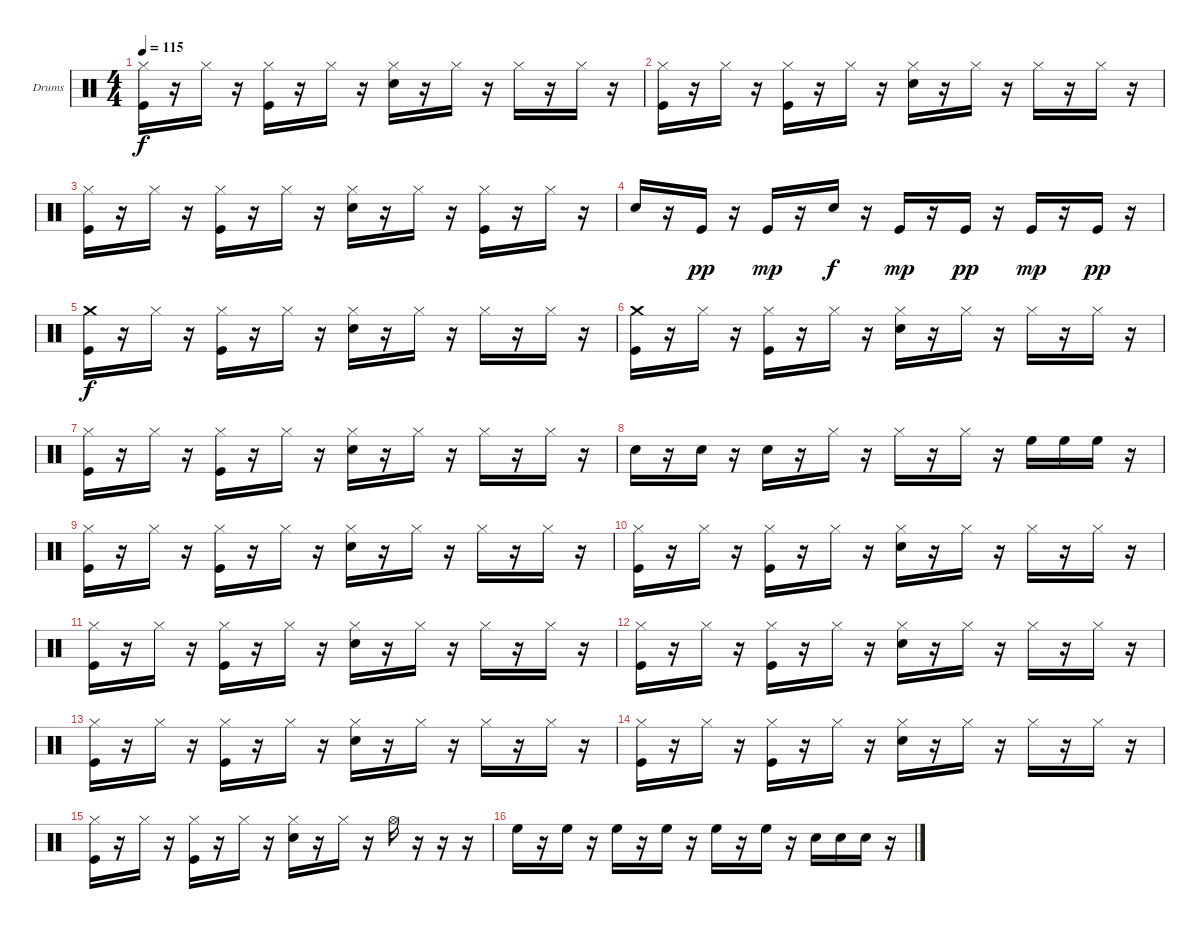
\bracketExtendMode groupsimilarinstruments
\firstSystemTrackNameOrientation horizontal
\otherSystemsTrackNameOrientation horizontal
\track ("Drumkit" "Drums") {instrument percussion}
\staff {score}
\articulation defaults
\ts (4 4)
\tempo 115
\clef neutral
\ks c
("Hi-Hat (closed)" "Kick (hit)").16{dy f} r.16 "Hi-Hat (closed)".16 r.16 ("Hi-Hat (closed)" "Kick (hit)").16 r.16 "Hi-Hat (closed)".16 r.16 ("Hi-Hat (closed)" "Snare (hit) 2").16 r.16 "Hi-Hat (closed)".16 r.16 "Hi-Hat (closed)".16 r.16 "Hi-Hat (closed)".16 r.16 |
("Hi-Hat (closed)" "Kick (hit)").16 r.16 "Hi-Hat (closed)".16 r.16 ("Hi-Hat (closed)" "Kick (hit)").16 r.16 "Hi-Hat (closed)".16 r.16 ("Hi-Hat (closed)" "Snare (hit) 2").16 r.16 "Hi-Hat (closed)".16 r.16 "Hi-Hat (closed)".16 r.16 "Hi-Hat (closed)".16 r.16 |
("Hi-Hat (closed)" "Kick (hit)").16 r.16 "Hi-Hat (closed)".16 r.16 ("Hi-Hat (closed)" "Kick (hit)").16 r.16 "Hi-Hat (closed)".16 r.16 ("Hi-Hat (closed)" "Snare (hit) 2").16 r.16 "Hi-Hat (closed)".16 r.16 ("Hi-Hat (closed)" "Kick (hit)").16 r.16 "Hi-Hat (closed)".16 r.16 |
"Snare (hit) 2".16 r.16 "Kick (hit)".16{dy pp} r.16 "Kick (hit)".16{dy mp} r.16 "Snare (hit) 2".16{dy f} r.16 "Kick (hit)".16{dy mp} r.16 "Kick (hit)".16{dy pp} r.16 "Kick (hit)".16{dy mp} r.16 "Kick (hit)".16{dy pp} r.16 |
("Crash medium (hit)" "Kick (hit)").16{dy f} r.16 "Hi-Hat (closed)".16 r.16 ("Hi-Hat (closed)" "Kick (hit)").16 r.16 "Hi-Hat (closed)".16 r.16 ("Hi-Hat (closed)" "Snare (hit) 2").16 r.16 "Hi-Hat (closed)".16 r.16 "Hi-Hat (closed)".16 r.16 "Hi-Hat (closed)".16 r.16 |
("Crash medium (hit)" "Kick (hit)").16 r.16 "Hi-Hat (closed)".16 r.16 ("Hi-Hat (closed)" "Kick (hit)").16 r.16 "Hi-Hat (closed)".16 r.16 ("Hi-Hat (closed)" "Snare (hit) 2").16 r.16 "Hi-Hat (closed)".16 r.16 "Hi-Hat (closed)".16 r.16 "Hi-Hat (closed)".16 r.16 |
("Hi-Hat (closed)" "Kick (hit)").16 r.16 "Hi-Hat (closed)".16 r.16 ("Hi-Hat (closed)" "Kick (hit)").16 r.16 "Hi-Hat (closed)".16 r.16 ("Hi-Hat (closed)" "Snare (hit) 2").16 r.16 "Hi-Hat (closed)".16 r.16 "Hi-Hat (closed)".16 r.16 "Hi-Hat (closed)".16 r.16 |
"Snare (hit) 2".16 r.16 "Snare (hit) 2".16 r.16 "Snare (hit) 2".16 r.16 "Hi-Hat (closed)".16 r.16 "Hi-Hat (closed)".16 r.16 "Hi-Hat (closed)".16 r.16 "High Floor Tom (hit)".16 "High Floor Tom (hit)".16 "High Floor Tom (hit)".16 r.16 |
("Hi-Hat (closed)" "Kick (hit)").16 r.16 "Hi-Hat (closed)".16 r.16 ("Hi-Hat (closed)" "Kick (hit)").16 r.16 "Hi-Hat (closed)".16 r.16 ("Hi-Hat (closed)" "Snare (hit) 2").16 r.16 "Hi-Hat (closed)".16 r.16 "Hi-Hat (closed)".16 r.16 "Hi-Hat (closed)".16 r.16 |
("Hi-Hat (closed)" "Kick (hit)").16 r.16 "Hi-Hat (closed)".16 r.16 ("Hi-Hat (closed)" "Kick (hit)").16 r.16 "Hi-Hat (closed)".16 r.16 ("Hi-Hat (closed)" "Snare (hit) 2").16 r.16 "Hi-Hat (closed)".16 r.16 "Hi-Hat (closed)".16 r.16 "Hi-Hat (closed)".16 r.16 |
("Hi-Hat (closed)" "Kick (hit)").16 r.16 "Hi-Hat (closed)".16 r.16 ("Hi-Hat (closed)" "Kick (hit)").16 r.16 "Hi-Hat (closed)".16 r.16 ("Hi-Hat (closed)" "Snare (hit) 2").16 r.16 "Hi-Hat (closed)".16 r.16 "Hi-Hat (closed)".16 r.16 "Hi-Hat (closed)".16 r.16 |
("Hi-Hat (closed)" "Kick (hit)").16 r.16 "Hi-Hat (closed)".16 r.16 ("Hi-Hat (closed)" "Kick (hit)").16 r.16 "Hi-Hat (closed)".16 r.16 ("Hi-Hat (closed)" "Snare (hit) 2").16 r.16 "Hi-Hat (closed)".16 r.16 "Hi-Hat (closed)".16 r.16 "Hi-Hat (closed)".16 r.16 |
("Hi-Hat (closed)" "Kick (hit)").16 r.16 "Hi-Hat (closed)".16 r.16 ("Hi-Hat (closed)" "Kick (hit)").16 r.16 "Hi-Hat (closed)".16 r.16 ("Hi-Hat (closed)" "Snare (hit) 2").16 r.16 "Hi-Hat (closed)".16 r.16 "Hi-Hat (closed)".16 r.16 "Hi-Hat (closed)".16 r.16 |
("Hi-Hat (closed)" "Kick (hit)").16 r.16 "Hi-Hat (closed)".16 r.16 ("Hi-Hat (closed)" "Kick (hit)").16 r.16 "Hi-Hat (closed)".16 r.16 ("Hi-Hat (closed)" "Snare (hit) 2").16 r.16 "Hi-Hat (closed)".16 r.16 "Hi-Hat (closed)".16 r.16 "Hi-Hat (closed)".16 r.16 |
("Hi-Hat (closed)" "Kick (hit)").16 r.16 "Hi-Hat (closed)".16 r.16 ("Hi-Hat (closed)" "Kick (hit)").16 r.16 "Hi-Hat (closed)".16 r.16 ("Hi-Hat (closed)" "Snare (hit) 2").16 r.16 "Hi-Hat (closed)".16 r.16 "Hi-Hat (open)".16 r.16 r.16 r.16 |
"High Floor Tom (hit)".16 r.16 "High Floor Tom (hit)".16 r.16 "High Floor Tom (hit)".16 r.16 "High Floor Tom (hit)".16 r.16 "High Floor Tom (hit)".16 r.16 "High Floor Tom (hit)".16 r.16 "Snare (hit) 2".16 "Snare (hit) 2".16 "Snare (hit) 2".16 r.16
